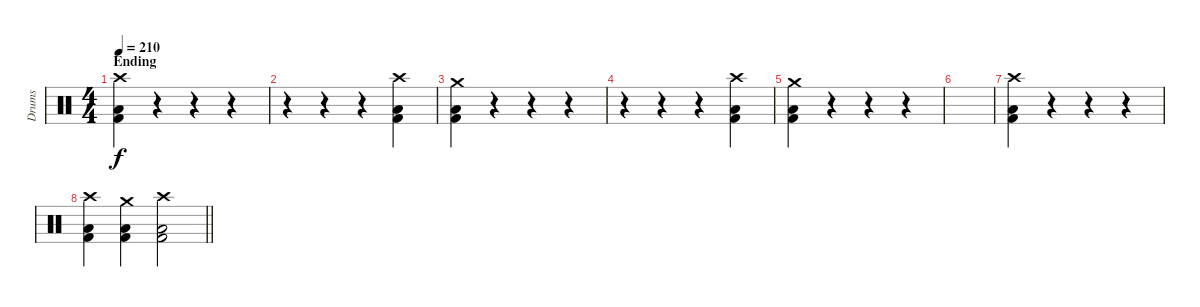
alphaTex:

\track ("Drums" "Drums") {instrument percussion}
\staff {score}
\articulation defaults
\ts (4 4)
\section ("" "Ending")
\tempo 210
\clef neutral
\ks c
("Crash high (hit)" "Low Floor Tom (hit)" "Kick (hit) 2").4{dy f} r.4 r.4 r.4 |
r.4 r.4 r.4 ("Crash high (hit)" "Low Floor Tom (hit)" "Kick (hit) 2").4 |
("Crash medium (hit)" "Low Floor Tom (hit)" "Kick (hit) 2").4 r.4 r.4 r.4 |
r.4 r.4 r.4 ("Crash high (hit)" "Low Floor Tom (hit)" "Kick (hit) 2").4 |
("Crash medium (hit)" "Low Floor Tom (hit)" "Kick (hit) 2").4 r.4 r.4 r.4 |
|
("Crash high (hit)" "Low Floor Tom (hit)" "Kick (hit) 2").4 r.4 r.4 r.4 |
\barLineRight lightlight
("Crash high (hit)" "Low Floor Tom (hit)" "Kick (hit) 2").4 ("Crash medium (hit)" "Low Floor Tom (hit)" "Kick (hit) 2").4 ("Crash high (hit)" "Low Floor Tom (hit)" "Kick (hit) 2").2
